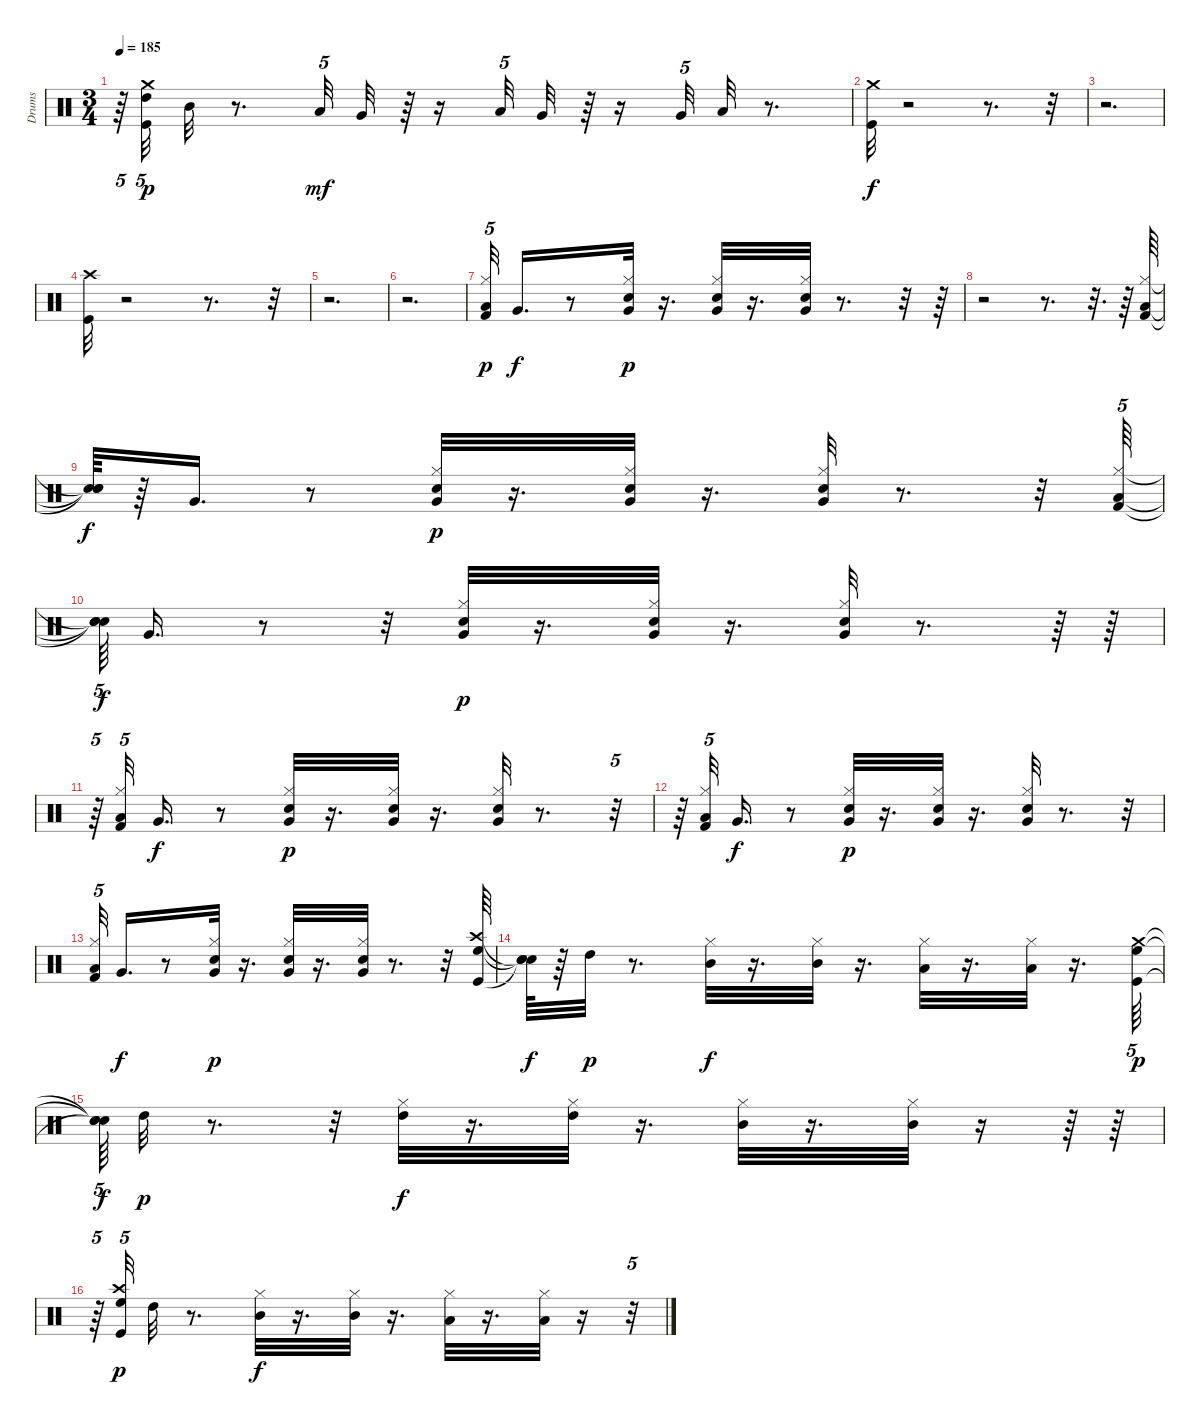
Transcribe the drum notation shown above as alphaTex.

\track ("Drums" "Drums") {instrument percussion}
\staff {score}
\articulation defaults
\ts (3 4)
\tempo 185
\clef neutral
\ks c
r.64{tu (5 4) dy f} ("Crash medium (hit)" "Kick (hit)" "High Tom (hit)").32{tu (5 4) dy p} "Mid Tom (hit)".32 r.8{d} "Low Tom (hit)".32{tu (5 4) dy mf} "Very Low Tom (hit)".32 r.64 r.16 "Low Tom (hit)".32{tu (5 4)} "Very Low Tom (hit)".32 r.64 r.16 "Very Low Tom (hit)".32{tu (5 4)} "Low Floor Tom (hit)".32 r.8{d} |
("Crash medium (hit)" "Kick (hit)").32{dy f} r.2 r.8{d} r.32 |
r.2{d} |
("Kick (hit)" "Crash high (hit)").32 r.2 r.8{d} r.32 |
r.2{d} |
r.2{d} |
("Hi-Hat (closed)" "Kick (hit) 2" "Low Tom (hit)").32{tu (5 4) dy p} "Very Low Tom (hit)".16{d dy f} r.8 ("Very Low Tom (hit)" "Hi-Hat (closed)" "Electric Snare (hit)").32{dy p} r.16{d} ("Very Low Tom (hit)" "Hi-Hat (closed)" "Electric Snare (hit)").32 r.16{d} ("Very Low Tom (hit)" "Hi-Hat (closed)" "Electric Snare (hit)").32 r.8{d} r.32 r.64 |
r.2 r.8{d} r.32{d} r.64 ("Hi-Hat (closed)" "Kick (hit) 2" "Low Tom (hit)").64 |
("Snare (hit)"{t} "Snare (hit)"{t} "Snare (hit)"{t}).64{dy f} r.64 "Very Low Tom (hit)".16{d} r.8 ("Very Low Tom (hit)" "Hi-Hat (closed)" "Electric Snare (hit)").32{dy p} r.16{d} ("Very Low Tom (hit)" "Hi-Hat (closed)" "Electric Snare (hit)").32 r.16{d} ("Very Low Tom (hit)" "Hi-Hat (closed)" "Electric Snare (hit)").32 r.8{d} r.32 ("Hi-Hat (closed)" "Kick (hit) 2" "Low Tom (hit)").64{tu (5 4)} |
("Snare (hit)"{t} "Snare (hit)"{t} "Snare (hit)"{t}).64{tu (5 4) dy f} "Very Low Tom (hit)".16{d} r.8 r.32 ("Very Low Tom (hit)" "Hi-Hat (closed)" "Electric Snare (hit)").32{dy p} r.16{d} ("Very Low Tom (hit)" "Hi-Hat (closed)" "Electric Snare (hit)").32 r.16{d} ("Very Low Tom (hit)" "Hi-Hat (closed)" "Electric Snare (hit)").32 r.8{d} r.64 r.64 |
r.64{tu (5 4)} ("Hi-Hat (closed)" "Kick (hit) 2" "Low Tom (hit)").32{tu (5 4)} "Very Low Tom (hit)".16{d dy f} r.8 ("Very Low Tom (hit)" "Hi-Hat (closed)" "Electric Snare (hit)").32{dy p} r.16{d} ("Very Low Tom (hit)" "Hi-Hat (closed)" "Electric Snare (hit)").32 r.16{d} ("Very Low Tom (hit)" "Hi-Hat (closed)" "Electric Snare (hit)").32 r.8{d} r.32{tu (5 4)} |
r.64 ("Hi-Hat (closed)" "Kick (hit) 2" "Low Tom (hit)").32{tu (5 4)} "Very Low Tom (hit)".16{d dy f} r.8 ("Very Low Tom (hit)" "Hi-Hat (closed)" "Electric Snare (hit)").32{dy p} r.16{d} ("Very Low Tom (hit)" "Hi-Hat (closed)" "Electric Snare (hit)").32 r.16{d} ("Very Low Tom (hit)" "Hi-Hat (closed)" "Electric Snare (hit)").32 r.8{d} r.32 |
("Hi-Hat (closed)" "Kick (hit) 2" "Low Tom (hit)").32{tu (5 4)} "Very Low Tom (hit)".16{d dy f} r.8 ("Very Low Tom (hit)" "Hi-Hat (closed)" "Electric Snare (hit)").32{dy p} r.16{d} ("Very Low Tom (hit)" "Hi-Hat (closed)" "Electric Snare (hit)").32 r.16{d} ("Very Low Tom (hit)" "Hi-Hat (closed)" "Electric Snare (hit)").32 r.8{d} r.32 ("Crash high (hit)" "High Floor Tom (hit)" "Kick (hit)").64 |
("Snare (hit)"{t} "Snare (hit)"{t} "Snare (hit)"{t}).64{dy f} r.64 "High Tom (hit)".32{dy p} r.8{d} ("Hi-Hat (closed)" "Mid Tom (hit)").32{dy f} r.16{d} ("Hi-Hat (closed)" "Mid Tom (hit)").32 r.16{d} ("Hi-Hat (closed)" "Low Tom (hit)").32 r.16{d} ("Hi-Hat (closed)" "Low Tom (hit)").32 r.16{d} ("High Floor Tom (hit)" "Crash medium (hit)" "Kick (hit)").64{tu (5 4) dy p} |
("Snare (hit)"{t} "Snare (hit)"{t} "Snare (hit)"{t}).64{tu (5 4) dy f} "High Tom (hit)".32{dy p} r.8{d} r.32 ("Hi-Hat (closed)" "High Tom (hit)").32{dy f} r.16{d} ("Hi-Hat (closed)" "High Tom (hit)").32 r.16{d} ("Hi-Hat (closed)" "Mid Tom (hit)").32 r.16{d} ("Hi-Hat (closed)" "Mid Tom (hit)").32 r.16 r.64 r.64 |
r.64{tu (5 4)} ("High Floor Tom (hit)" "Kick (hit)" "Crash high (hit)").32{tu (5 4) dy p} "High Tom (hit)".32 r.8{d} ("Hi-Hat (closed)" "Mid Tom (hit)").32{dy f} r.16{d} ("Hi-Hat (closed)" "Mid Tom (hit)").32 r.16{d} ("Hi-Hat (closed)" "Low Tom (hit)").32 r.16{d} ("Hi-Hat (closed)" "Low Tom (hit)").32 r.16 r.32{tu (5 4)}
